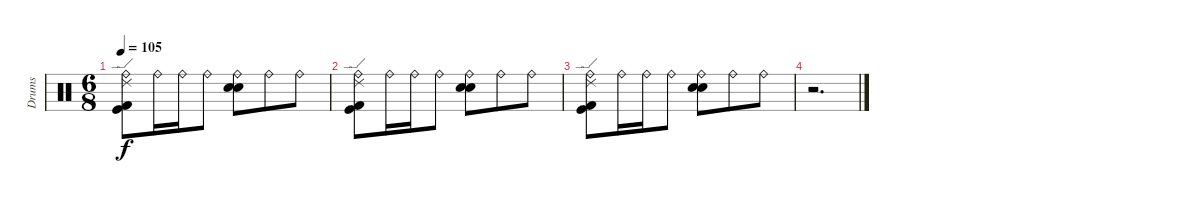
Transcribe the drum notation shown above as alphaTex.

\track ("Drums" "Drums") {instrument percussion}
\staff {score}
\articulation defaults
\ts (6 8)
\tempo 105
\clef neutral
\ks c
("Ride (bell)" "Ride (edge) 2" "Kick (hit) 2" "Kick (hit)").8{dy f} "Ride (bell)".16 "Ride (bell)".16 "Ride (bell)".8 ("Ride (bell)" "Snare (hit) 2" "Electric Snare (hit)").8 "Ride (bell)".8 "Ride (bell)".8 |
("Ride (bell)" "Ride (edge) 2" "Kick (hit) 2" "Kick (hit)").8 "Ride (bell)".16 "Ride (bell)".16 "Ride (bell)".8 ("Ride (bell)" "Snare (hit) 2" "Electric Snare (hit)").8 "Ride (bell)".8 "Ride (bell)".8 |
("Ride (bell)" "Ride (edge) 2" "Kick (hit) 2" "Kick (hit)").8 "Ride (bell)".16 "Ride (bell)".16 "Ride (bell)".8 ("Ride (bell)" "Snare (hit) 2" "Electric Snare (hit)").8 "Ride (bell)".8 "Ride (bell)".8 |
r.2{d}
